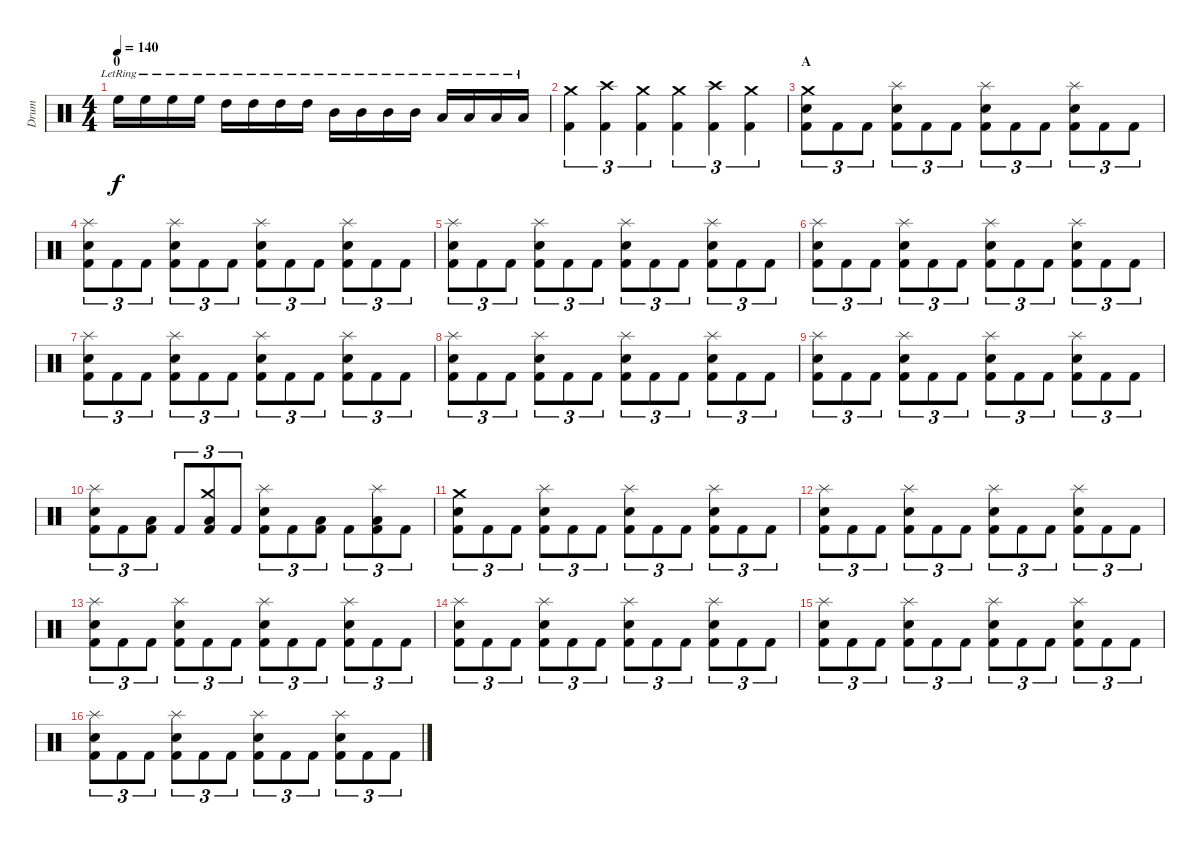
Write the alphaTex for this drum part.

\track ("Drum" "Drum") {instrument percussion}
\staff {score}
\articulation defaults
\ts (4 4)
\section ("" "0")
\tempo 140
\tempo 220
\tempo 140
\clef neutral
\ks c "High Floor Tom (hit)"{lr}.16{dy f volume 13} "High Floor Tom (hit)"{lr}.16 "High Floor Tom (hit)"{lr}.16 "High Floor Tom (hit)"{lr}.16 "High Tom (hit)"{lr}.16 "High Tom (hit)"{lr}.16 "High Tom (hit)"{lr}.16 "High Tom (hit)"{lr}.16 "Mid Tom (hit)"{lr}.16 "Mid Tom (hit)"{lr}.16 "Mid Tom (hit)"{lr}.16 "Mid Tom (hit)"{lr}.16 "Low Tom (hit)"{lr}.16 "Low Tom (hit)"{lr}.16 "Low Tom (hit)"{lr}.16 "Low Tom (hit)"{lr}.16
|
("Crash medium (hit)" "Kick (hit) 2").4{tu (3 2)} ("Crash high (hit)" "Kick (hit) 2").4{tu (3 2)} ("Crash medium (hit)" "Kick (hit) 2").4{tu (3 2)} ("Crash medium (hit)" "Kick (hit) 2").4{tu (3 2)} ("Crash high (hit)" "Kick (hit) 2").4{tu (3 2)} ("Crash medium (hit)" "Kick (hit) 2").4{tu (3 2)} |
\section ("" "A")
("Crash medium (hit)" "Electric Snare (hit)" "Kick (hit) 2").8{tu (3 2)} "Kick (hit) 2".8{tu (3 2)} "Kick (hit) 2".8{tu (3 2)} ("Splash (hit)" "Electric Snare (hit)" "Kick (hit) 2").8{tu (3 2)} "Kick (hit) 2".8{tu (3 2)} "Kick (hit) 2".8{tu (3 2)} ("Splash (hit)" "Electric Snare (hit)" "Kick (hit) 2").8{tu (3 2)} "Kick (hit) 2".8{tu (3 2)} "Kick (hit) 2".8{tu (3 2)} ("Splash (hit)" "Electric Snare (hit)" "Kick (hit) 2").8{tu (3 2)} "Kick (hit) 2".8{tu (3 2)} "Kick (hit) 2".8{tu (3 2)} |
("Splash (hit)" "Electric Snare (hit)" "Kick (hit) 2").8{tu (3 2)} "Kick (hit) 2".8{tu (3 2)} "Kick (hit) 2".8{tu (3 2)} ("Splash (hit)" "Electric Snare (hit)" "Kick (hit) 2").8{tu (3 2)} "Kick (hit) 2".8{tu (3 2)} "Kick (hit) 2".8{tu (3 2)} ("Splash (hit)" "Electric Snare (hit)" "Kick (hit) 2").8{tu (3 2)} "Kick (hit) 2".8{tu (3 2)} "Kick (hit) 2".8{tu (3 2)} ("Splash (hit)" "Electric Snare (hit)" "Kick (hit) 2").8{tu (3 2)} "Kick (hit) 2".8{tu (3 2)} "Kick (hit) 2".8{tu (3 2)} |
("Splash (hit)" "Electric Snare (hit)" "Kick (hit) 2").8{tu (3 2)} "Kick (hit) 2".8{tu (3 2)} "Kick (hit) 2".8{tu (3 2)} ("Splash (hit)" "Electric Snare (hit)" "Kick (hit) 2").8{tu (3 2)} "Kick (hit) 2".8{tu (3 2)} "Kick (hit) 2".8{tu (3 2)} ("Splash (hit)" "Electric Snare (hit)" "Kick (hit) 2").8{tu (3 2)} "Kick (hit) 2".8{tu (3 2)} "Kick (hit) 2".8{tu (3 2)} ("Splash (hit)" "Electric Snare (hit)" "Kick (hit) 2").8{tu (3 2)} "Kick (hit) 2".8{tu (3 2)} "Kick (hit) 2".8{tu (3 2)} |
("Splash (hit)" "Electric Snare (hit)" "Kick (hit) 2").8{tu (3 2)} "Kick (hit) 2".8{tu (3 2)} "Kick (hit) 2".8{tu (3 2)} ("Splash (hit)" "Electric Snare (hit)" "Kick (hit) 2").8{tu (3 2)} "Kick (hit) 2".8{tu (3 2)} "Kick (hit) 2".8{tu (3 2)} ("Splash (hit)" "Electric Snare (hit)" "Kick (hit) 2").8{tu (3 2)} "Kick (hit) 2".8{tu (3 2)} "Kick (hit) 2".8{tu (3 2)} ("Splash (hit)" "Electric Snare (hit)" "Kick (hit) 2").8{tu (3 2)} "Kick (hit) 2".8{tu (3 2)} "Kick (hit) 2".8{tu (3 2)} |
("Splash (hit)" "Electric Snare (hit)" "Kick (hit) 2").8{tu (3 2)} "Kick (hit) 2".8{tu (3 2)} "Kick (hit) 2".8{tu (3 2)} ("Splash (hit)" "Electric Snare (hit)" "Kick (hit) 2").8{tu (3 2)} "Kick (hit) 2".8{tu (3 2)} "Kick (hit) 2".8{tu (3 2)} ("Splash (hit)" "Electric Snare (hit)" "Kick (hit) 2").8{tu (3 2)} "Kick (hit) 2".8{tu (3 2)} "Kick (hit) 2".8{tu (3 2)} ("Splash (hit)" "Electric Snare (hit)" "Kick (hit) 2").8{tu (3 2)} "Kick (hit) 2".8{tu (3 2)} "Kick (hit) 2".8{tu (3 2)} |
("Splash (hit)" "Electric Snare (hit)" "Kick (hit) 2").8{tu (3 2)} "Kick (hit) 2".8{tu (3 2)} "Kick (hit) 2".8{tu (3 2)} ("Splash (hit)" "Electric Snare (hit)" "Kick (hit) 2").8{tu (3 2)} "Kick (hit) 2".8{tu (3 2)} "Kick (hit) 2".8{tu (3 2)} ("Splash (hit)" "Electric Snare (hit)" "Kick (hit) 2").8{tu (3 2)} "Kick (hit) 2".8{tu (3 2)} "Kick (hit) 2".8{tu (3 2)} ("Splash (hit)" "Electric Snare (hit)" "Kick (hit) 2").8{tu (3 2)} "Kick (hit) 2".8{tu (3 2)} "Kick (hit) 2".8{tu (3 2)} |
("Splash (hit)" "Electric Snare (hit)" "Kick (hit) 2").8{tu (3 2)} "Kick (hit) 2".8{tu (3 2)} "Kick (hit) 2".8{tu (3 2)} ("Splash (hit)" "Electric Snare (hit)" "Kick (hit) 2").8{tu (3 2)} "Kick (hit) 2".8{tu (3 2)} "Kick (hit) 2".8{tu (3 2)} ("Splash (hit)" "Electric Snare (hit)" "Kick (hit) 2").8{tu (3 2)} "Kick (hit) 2".8{tu (3 2)} "Kick (hit) 2".8{tu (3 2)} ("Splash (hit)" "Electric Snare (hit)" "Kick (hit) 2").8{tu (3 2)} "Kick (hit) 2".8{tu (3 2)} "Kick (hit) 2".8{tu (3 2)} |
("Splash (hit)" "Electric Snare (hit)" "Kick (hit) 2").8{tu (3 2)} "Kick (hit) 2".8{tu (3 2)} ("Low Tom (hit)" "Kick (hit) 2").8{tu (3 2)} "Kick (hit) 2".8{tu (3 2)} ("Crash medium (hit)" "Low Tom (hit)" "Kick (hit) 2").8{tu (3 2)} "Kick (hit) 2".8{tu (3 2)} ("Splash (hit)" "Electric Snare (hit)" "Kick (hit) 2").8{tu (3 2)} "Kick (hit) 2".8{tu (3 2)} ("Low Tom (hit)" "Kick (hit) 2").8{tu (3 2)} "Kick (hit) 2".8{tu (3 2)} ("Splash (hit)" "Low Tom (hit)" "Kick (hit) 2").8{tu (3 2)} "Kick (hit) 2".8{tu (3 2)} |
("Crash medium (hit)" "Electric Snare (hit)" "Kick (hit) 2").8{tu (3 2)} "Kick (hit) 2".8{tu (3 2)} "Kick (hit) 2".8{tu (3 2)} ("Splash (hit)" "Electric Snare (hit)" "Kick (hit) 2").8{tu (3 2)} "Kick (hit) 2".8{tu (3 2)} "Kick (hit) 2".8{tu (3 2)} ("Splash (hit)" "Electric Snare (hit)" "Kick (hit) 2").8{tu (3 2)} "Kick (hit) 2".8{tu (3 2)} "Kick (hit) 2".8{tu (3 2)} ("Splash (hit)" "Electric Snare (hit)" "Kick (hit) 2").8{tu (3 2)} "Kick (hit) 2".8{tu (3 2)} "Kick (hit) 2".8{tu (3 2)} |
("Splash (hit)" "Electric Snare (hit)" "Kick (hit) 2").8{tu (3 2)} "Kick (hit) 2".8{tu (3 2)} "Kick (hit) 2".8{tu (3 2)} ("Splash (hit)" "Electric Snare (hit)" "Kick (hit) 2").8{tu (3 2)} "Kick (hit) 2".8{tu (3 2)} "Kick (hit) 2".8{tu (3 2)} ("Splash (hit)" "Electric Snare (hit)" "Kick (hit) 2").8{tu (3 2)} "Kick (hit) 2".8{tu (3 2)} "Kick (hit) 2".8{tu (3 2)} ("Splash (hit)" "Electric Snare (hit)" "Kick (hit) 2").8{tu (3 2)} "Kick (hit) 2".8{tu (3 2)} "Kick (hit) 2".8{tu (3 2)} |
("Splash (hit)" "Electric Snare (hit)" "Kick (hit) 2").8{tu (3 2)} "Kick (hit) 2".8{tu (3 2)} "Kick (hit) 2".8{tu (3 2)} ("Splash (hit)" "Electric Snare (hit)" "Kick (hit) 2").8{tu (3 2)} "Kick (hit) 2".8{tu (3 2)} "Kick (hit) 2".8{tu (3 2)} ("Splash (hit)" "Electric Snare (hit)" "Kick (hit) 2").8{tu (3 2)} "Kick (hit) 2".8{tu (3 2)} "Kick (hit) 2".8{tu (3 2)} ("Splash (hit)" "Electric Snare (hit)" "Kick (hit) 2").8{tu (3 2)} "Kick (hit) 2".8{tu (3 2)} "Kick (hit) 2".8{tu (3 2)} |
("Splash (hit)" "Electric Snare (hit)" "Kick (hit) 2").8{tu (3 2)} "Kick (hit) 2".8{tu (3 2)} "Kick (hit) 2".8{tu (3 2)} ("Splash (hit)" "Electric Snare (hit)" "Kick (hit) 2").8{tu (3 2)} "Kick (hit) 2".8{tu (3 2)} "Kick (hit) 2".8{tu (3 2)} ("Splash (hit)" "Electric Snare (hit)" "Kick (hit) 2").8{tu (3 2)} "Kick (hit) 2".8{tu (3 2)} "Kick (hit) 2".8{tu (3 2)} ("Splash (hit)" "Electric Snare (hit)" "Kick (hit) 2").8{tu (3 2)} "Kick (hit) 2".8{tu (3 2)} "Kick (hit) 2".8{tu (3 2)} |
("Splash (hit)" "Electric Snare (hit)" "Kick (hit) 2").8{tu (3 2)} "Kick (hit) 2".8{tu (3 2)} "Kick (hit) 2".8{tu (3 2)} ("Splash (hit)" "Electric Snare (hit)" "Kick (hit) 2").8{tu (3 2)} "Kick (hit) 2".8{tu (3 2)} "Kick (hit) 2".8{tu (3 2)} ("Splash (hit)" "Electric Snare (hit)" "Kick (hit) 2").8{tu (3 2)} "Kick (hit) 2".8{tu (3 2)} "Kick (hit) 2".8{tu (3 2)} ("Splash (hit)" "Electric Snare (hit)" "Kick (hit) 2").8{tu (3 2)} "Kick (hit) 2".8{tu (3 2)} "Kick (hit) 2".8{tu (3 2)} |
("Splash (hit)" "Electric Snare (hit)" "Kick (hit) 2").8{tu (3 2)} "Kick (hit) 2".8{tu (3 2)} "Kick (hit) 2".8{tu (3 2)} ("Splash (hit)" "Electric Snare (hit)" "Kick (hit) 2").8{tu (3 2)} "Kick (hit) 2".8{tu (3 2)} "Kick (hit) 2".8{tu (3 2)} ("Splash (hit)" "Electric Snare (hit)" "Kick (hit) 2").8{tu (3 2)} "Kick (hit) 2".8{tu (3 2)} "Kick (hit) 2".8{tu (3 2)} ("Splash (hit)" "Electric Snare (hit)" "Kick (hit) 2").8{tu (3 2)} "Kick (hit) 2".8{tu (3 2)} "Kick (hit) 2".8{tu (3 2)}
